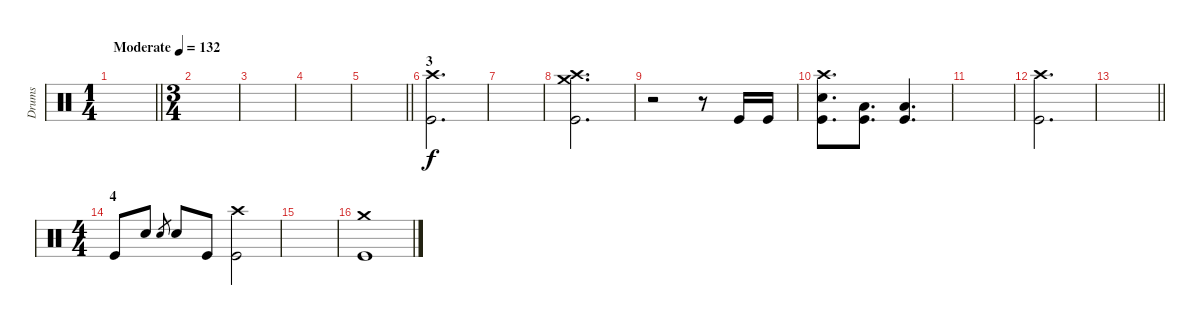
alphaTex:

\track ("Drums" "Drums") {instrument percussion}
\staff
\articulation defaults
\ts (1 4)
\tempo (132 "Moderate")
\clef neutral
\barLineRight lightlight
\ks c
|
\ts (3 4)
|
|
|
\barLineRight lightlight
|
\section ("" "3")
("Crash high (hit)" "Kick (hit)").2{d} |
|
("Crash high (hit)" "Crash medium (hit)" "Kick (hit)").2{d} |
r.2 r.8 "Kick (hit)".16 "Kick (hit)".16 |
("Crash high (hit)" "Electric Snare (hit)" "Kick (hit)").8{d} ("Low Floor Tom (hit)" "Kick (hit)").8{d} ("Low Floor Tom (hit)" "Kick (hit)").4{d} |
|
("Crash high (hit)" "Kick (hit)").2{d} |
\barLineRight lightlight
|
\ts (4 4)
\section ("" "4")
"Kick (hit)".8 "Electric Snare (hit)".8 "Electric Snare (hit)".8{gr} "Electric Snare (hit)".8 "Kick (hit)".8 ("Crash high (hit)" "Kick (hit)").2 |
|
("Crash medium (hit)" "Kick (hit)").1
